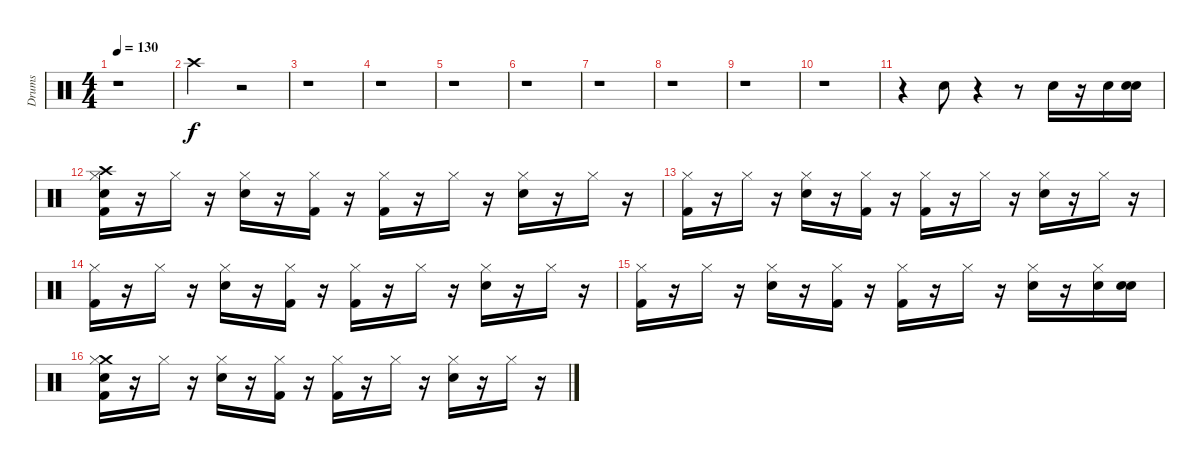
\track ("Drums" "Drums") {instrument percussion}
\staff {score}
\articulation defaults
\ts (4 4)
\tempo 130
\clef neutral
\ks c
r.1{dy f} |
"Crash high (hit)".2 r.2 |
r.1 |
r.1 |
r.1 |
r.1 |
r.1 |
r.1 |
r.1 |
r.1 |
r.4 "Snare (hit) 2".8 r.4 r.8 "Snare (hit) 2".16 r.16 "Snare (hit) 2".16 ("Snare (hit)" "Snare (hit) 2").16 |
("Snare (hit)" "Hi-Hat (closed)" "Kick (hit) 2" "Crash high (hit)").16 r.16 "Hi-Hat (closed)".16 r.16 ("Snare (hit) 2" "Hi-Hat (closed)").16 r.16 ("Kick (hit) 2" "Hi-Hat (closed)").16 r.16 ("Kick (hit) 2" "Hi-Hat (closed)").16 r.16 "Hi-Hat (closed)".16 r.16 ("Hi-Hat (closed)" "Snare (hit) 2").16 r.16 "Hi-Hat (closed)".16 r.16 |
("Hi-Hat (closed)" "Kick (hit) 2").16 r.16 "Hi-Hat (closed)".16 r.16 ("Snare (hit) 2" "Hi-Hat (closed)").16 r.16 ("Kick (hit) 2" "Hi-Hat (closed)").16 r.16 ("Hi-Hat (closed)" "Kick (hit) 2").16 r.16 "Hi-Hat (closed)".16 r.16 ("Hi-Hat (closed)" "Snare (hit) 2").16 r.16 "Hi-Hat (closed)".16 r.16 |
("Hi-Hat (closed)" "Kick (hit) 2").16 r.16 "Hi-Hat (closed)".16 r.16 ("Snare (hit) 2" "Hi-Hat (closed)").16 r.16 ("Kick (hit) 2" "Hi-Hat (closed)").16 r.16 ("Kick (hit) 2" "Hi-Hat (closed)").16 r.16 "Hi-Hat (closed)".16 r.16 ("Hi-Hat (closed)" "Snare (hit) 2").16 r.16 "Hi-Hat (closed)".16 r.16 |
("Hi-Hat (closed)" "Kick (hit) 2").16 r.16 "Hi-Hat (closed)".16 r.16 ("Hi-Hat (closed)" "Snare (hit) 2").16 r.16 ("Kick (hit) 2" "Hi-Hat (closed)").16 r.16 ("Hi-Hat (closed)" "Kick (hit) 2").16 r.16 "Hi-Hat (closed)".16 r.16 ("Hi-Hat (closed)" "Snare (hit) 2").16 r.16 ("Snare (hit) 2" "Hi-Hat (closed)").16 ("Snare (hit)" "Snare (hit) 2").16 |
("Snare (hit)" "Kick (hit) 2" "Crash medium (hit)" "Hi-Hat (closed)").16 r.16 "Hi-Hat (closed)".16 r.16 ("Snare (hit) 2" "Hi-Hat (closed)").16 r.16 ("Hi-Hat (closed)" "Kick (hit) 2").16 r.16 ("Kick (hit) 2" "Hi-Hat (closed)").16 r.16 "Hi-Hat (closed)".16 r.16 ("Hi-Hat (closed)" "Snare (hit) 2").16 r.16 "Hi-Hat (closed)".16 r.16
